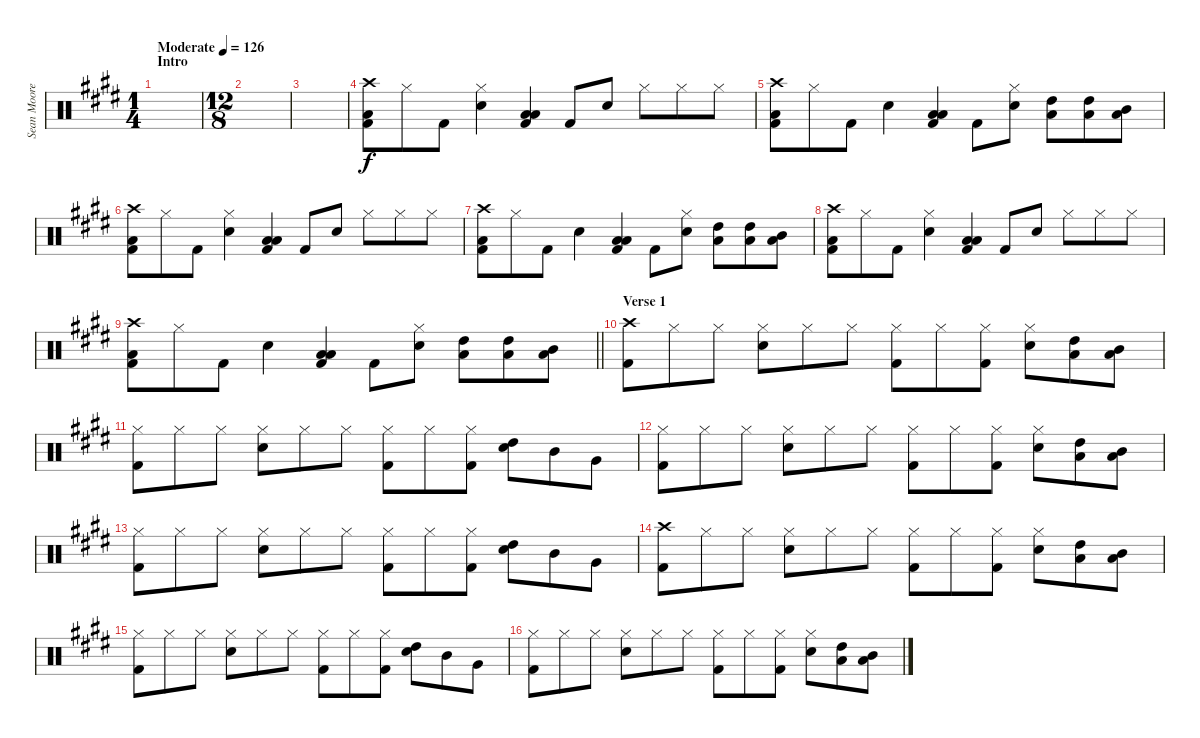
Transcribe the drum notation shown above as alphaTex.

\track ("Sean Moore (Drums)" "Sean Moore") {instrument percussion}
\staff {score}
\articulation defaults
\ts (1 4)
\section ("" "Intro")
\tempo (126 "Moderate")
\clef neutral
\ks e
|
\ts (12 8)
|
|
("Crash high (hit)" "Kick (hit) 2" "Low Floor Tom (hit)").8 "Hi-Hat (closed)".8 "Kick (hit) 2".8 ("Hi-Hat (closed)" "Electric Snare (hit)").4 ("Kick (hit) 2" "Low Floor Tom (hit)" "Low Tom (hit)").4 "Kick (hit) 2".8 "Electric Snare (hit)".8 "Hi-Hat (closed)".8 "Hi-Hat (closed)".8 "Hi-Hat (closed)".8 |
("Crash high (hit)" "Kick (hit) 2" "Low Floor Tom (hit)").8 "Hi-Hat (closed)".8 "Kick (hit) 2".8 "Electric Snare (hit)".4 ("Kick (hit) 2" "Low Floor Tom (hit)" "Low Tom (hit)").4 "Kick (hit) 2".8 ("Hi-Hat (closed)" "Electric Snare (hit)").8 ("Low Floor Tom (hit)" "High Tom (hit)").8 ("Low Floor Tom (hit)" "High Tom (hit)").8 ("Low Floor Tom (hit)" "Mid Tom (hit)").8 |
("Crash high (hit)" "Kick (hit) 2" "Low Floor Tom (hit)").8 "Hi-Hat (closed)".8 "Kick (hit) 2".8 ("Hi-Hat (closed)" "Electric Snare (hit)").4 ("Kick (hit) 2" "Low Floor Tom (hit)" "Low Tom (hit)").4 "Kick (hit) 2".8 "Electric Snare (hit)".8 "Hi-Hat (closed)".8 "Hi-Hat (closed)".8 "Hi-Hat (closed)".8 |
("Crash high (hit)" "Kick (hit) 2" "Low Floor Tom (hit)").8 "Hi-Hat (closed)".8 "Kick (hit) 2".8 "Electric Snare (hit)".4 ("Kick (hit) 2" "Low Floor Tom (hit)" "Low Tom (hit)").4 "Kick (hit) 2".8 ("Hi-Hat (closed)" "Electric Snare (hit)").8 ("Low Floor Tom (hit)" "High Tom (hit)").8 ("Low Floor Tom (hit)" "High Tom (hit)").8 ("Low Floor Tom (hit)" "Mid Tom (hit)").8 |
("Crash high (hit)" "Kick (hit) 2" "Low Floor Tom (hit)").8 "Hi-Hat (closed)".8 "Kick (hit) 2".8 ("Hi-Hat (closed)" "Electric Snare (hit)").4 ("Kick (hit) 2" "Low Floor Tom (hit)" "Low Tom (hit)").4 "Kick (hit) 2".8 "Electric Snare (hit)".8 "Hi-Hat (closed)".8 "Hi-Hat (closed)".8 "Hi-Hat (closed)".8 |
\barLineRight lightlight
("Crash high (hit)" "Kick (hit) 2" "Low Floor Tom (hit)").8 "Hi-Hat (closed)".8 "Kick (hit) 2".8 "Electric Snare (hit)".4 ("Kick (hit) 2" "Low Floor Tom (hit)" "Low Tom (hit)").4 "Kick (hit) 2".8 ("Hi-Hat (closed)" "Electric Snare (hit)").8 ("Low Floor Tom (hit)" "High Tom (hit)").8 ("Low Floor Tom (hit)" "High Tom (hit)").8 ("Low Floor Tom (hit)" "Mid Tom (hit)").8 |
\section ("" "Verse 1")
("Crash high (hit)" "Kick (hit) 2").8 "Hi-Hat (closed)".8 "Hi-Hat (closed)".8 ("Hi-Hat (closed)" "Electric Snare (hit)").8 "Hi-Hat (closed)".8 "Hi-Hat (closed)".8 ("Hi-Hat (closed)" "Kick (hit) 2").8 "Hi-Hat (closed)".8 ("Hi-Hat (closed)" "Kick (hit) 2").8 ("Hi-Hat (closed)" "Electric Snare (hit)").8 ("High Tom (hit)" "Low Floor Tom (hit)").8 ("Mid Tom (hit)" "Low Floor Tom (hit)").8 |
("Hi-Hat (closed)" "Kick (hit) 2").8 "Hi-Hat (closed)".8 "Hi-Hat (closed)".8 ("Hi-Hat (closed)" "Electric Snare (hit)").8 "Hi-Hat (closed)".8 "Hi-Hat (closed)".8 ("Hi-Hat (closed)" "Kick (hit) 2").8 "Hi-Hat (closed)".8 ("Hi-Hat (closed)" "Kick (hit) 2").8 ("Electric Snare (hit)" "High Tom (hit)").8 "Mid Tom (hit)".8 "Very Low Tom (hit)".8 |
("Hi-Hat (closed)" "Kick (hit) 2").8 "Hi-Hat (closed)".8 "Hi-Hat (closed)".8 ("Hi-Hat (closed)" "Electric Snare (hit)").8 "Hi-Hat (closed)".8 "Hi-Hat (closed)".8 ("Hi-Hat (closed)" "Kick (hit) 2").8 "Hi-Hat (closed)".8 ("Hi-Hat (closed)" "Kick (hit) 2").8 ("Hi-Hat (closed)" "Electric Snare (hit)").8 ("High Tom (hit)" "Low Floor Tom (hit)").8 ("Mid Tom (hit)" "Low Floor Tom (hit)").8 |
("Hi-Hat (closed)" "Kick (hit) 2").8 "Hi-Hat (closed)".8 "Hi-Hat (closed)".8 ("Hi-Hat (closed)" "Electric Snare (hit)").8 "Hi-Hat (closed)".8 "Hi-Hat (closed)".8 ("Hi-Hat (closed)" "Kick (hit) 2").8 "Hi-Hat (closed)".8 ("Hi-Hat (closed)" "Kick (hit) 2").8 ("Electric Snare (hit)" "High Tom (hit)").8 "Mid Tom (hit)".8 "Very Low Tom (hit)".8 |
("Crash high (hit)" "Kick (hit) 2").8 "Hi-Hat (closed)".8 "Hi-Hat (closed)".8 ("Hi-Hat (closed)" "Electric Snare (hit)").8 "Hi-Hat (closed)".8 "Hi-Hat (closed)".8 ("Hi-Hat (closed)" "Kick (hit) 2").8 "Hi-Hat (closed)".8 ("Hi-Hat (closed)" "Kick (hit) 2").8 ("Hi-Hat (closed)" "Electric Snare (hit)").8 ("High Tom (hit)" "Low Floor Tom (hit)").8 ("Mid Tom (hit)" "Low Floor Tom (hit)").8 |
("Hi-Hat (closed)" "Kick (hit) 2").8 "Hi-Hat (closed)".8 "Hi-Hat (closed)".8 ("Hi-Hat (closed)" "Electric Snare (hit)").8 "Hi-Hat (closed)".8 "Hi-Hat (closed)".8 ("Hi-Hat (closed)" "Kick (hit) 2").8 "Hi-Hat (closed)".8 ("Hi-Hat (closed)" "Kick (hit) 2").8 ("Electric Snare (hit)" "High Tom (hit)").8 "Mid Tom (hit)".8 "Very Low Tom (hit)".8 |
("Hi-Hat (closed)" "Kick (hit) 2").8 "Hi-Hat (closed)".8 "Hi-Hat (closed)".8 ("Hi-Hat (closed)" "Electric Snare (hit)").8 "Hi-Hat (closed)".8 "Hi-Hat (closed)".8 ("Hi-Hat (closed)" "Kick (hit) 2").8 "Hi-Hat (closed)".8 ("Hi-Hat (closed)" "Kick (hit) 2").8 ("Hi-Hat (closed)" "Electric Snare (hit)").8 ("High Tom (hit)" "Low Floor Tom (hit)").8 ("Mid Tom (hit)" "Low Floor Tom (hit)").8
